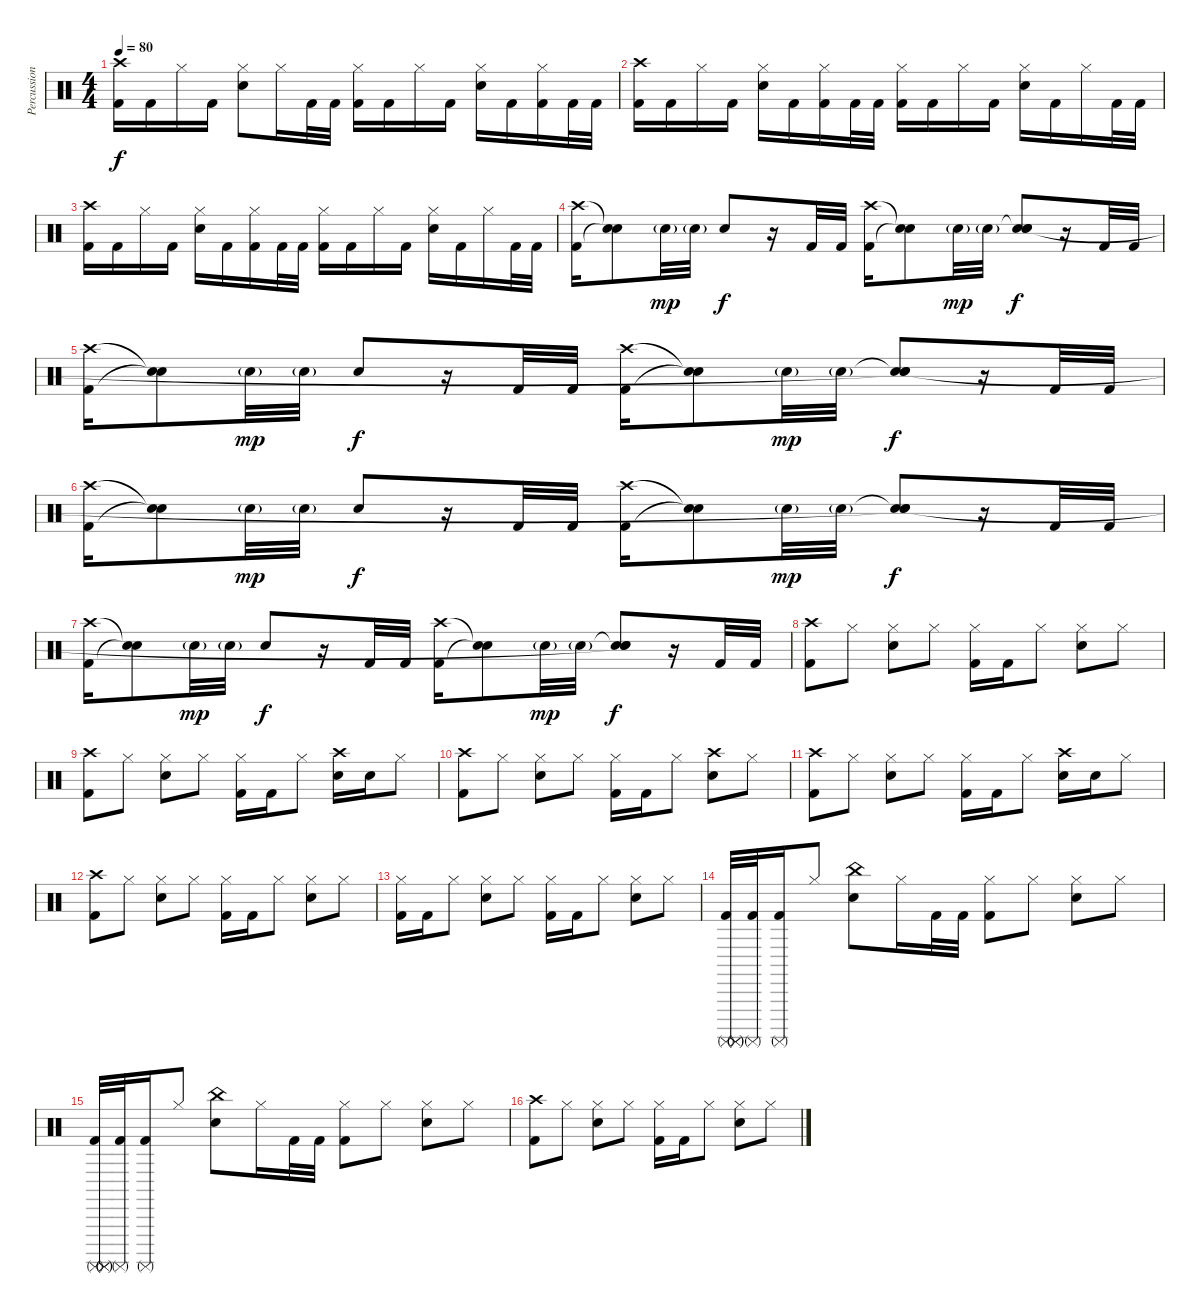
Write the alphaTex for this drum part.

\track ("Percussions" "Percussion") {instrument percussion}
\staff {score}
\articulation defaults
\ts (4 4)
\tempo 80
\clef neutral
\ks c
("Crash high (hit)" "Kick (hit) 2").16{dy f} "Kick (hit) 2".16 "Hi-Hat (closed)".16 "Kick (hit) 2".16 ("Hi-Hat (closed)" "Electric Snare (hit)").8 "Hi-Hat (closed)".16 "Kick (hit) 2".32 "Kick (hit) 2".32 ("Hi-Hat (closed)" "Kick (hit) 2").16 "Kick (hit) 2".16 "Hi-Hat (closed)".16 "Kick (hit) 2".16 ("Hi-Hat (closed)" "Electric Snare (hit)").16 "Kick (hit) 2".16 ("Hi-Hat (closed)" "Kick (hit) 2").16 "Kick (hit) 2".32 "Kick (hit) 2".32 |
("Crash high (hit)" "Kick (hit) 2").16 "Kick (hit) 2".16 "Hi-Hat (closed)".16 "Kick (hit) 2".16 ("Hi-Hat (closed)" "Electric Snare (hit)").16 "Kick (hit) 2".16 ("Hi-Hat (closed)" "Kick (hit) 2").16 "Kick (hit) 2".32 "Kick (hit) 2".32 ("Hi-Hat (closed)" "Kick (hit) 2").16 "Kick (hit) 2".16 "Hi-Hat (closed)".16 "Kick (hit) 2".16 ("Hi-Hat (closed)" "Electric Snare (hit)").16 "Kick (hit) 2".16 "Hi-Hat (closed)".16 "Kick (hit) 2".32 "Kick (hit) 2".32 |
("Crash high (hit)" "Kick (hit) 2").16 "Kick (hit) 2".16 "Hi-Hat (closed)".16 "Kick (hit) 2".16 ("Hi-Hat (closed)" "Electric Snare (hit)").16 "Kick (hit) 2".16 ("Hi-Hat (closed)" "Kick (hit) 2").16 "Kick (hit) 2".32 "Kick (hit) 2".32 ("Hi-Hat (closed)" "Kick (hit) 2").16 "Kick (hit) 2".16 "Hi-Hat (closed)".16 "Kick (hit) 2".16 ("Hi-Hat (closed)" "Electric Snare (hit)").16 "Kick (hit) 2".16 "Hi-Hat (closed)".16 "Kick (hit) 2".32 "Kick (hit) 2".32 |
("Crash high (hit)" "Kick (hit) 2").16 ("Snare (hit)"{t} "Snare (hit)"{t}).8 "Electric Snare (hit)"{g}.32{dy mp} "Electric Snare (hit)"{g}.32 "Electric Snare (hit)".8{dy f} r.16 "Kick (hit) 2".32 "Kick (hit) 2".32 ("Crash high (hit)" "Kick (hit) 2").16 ("Snare (hit)"{t} "Snare (hit)"{t}).8 "Electric Snare (hit)"{g}.32{dy mp} "Electric Snare (hit)"{g}.32 ("Snare (hit)"{t} "Electric Snare (hit)" "Snare (hit)").8{dy f} r.16 "Kick (hit) 2".32 "Kick (hit) 2".32 |
("Crash high (hit)" "Kick (hit) 2").16 ("Snare (hit)"{t} "Snare (hit)"{t}).8 "Electric Snare (hit)"{g}.32{dy mp} "Electric Snare (hit)"{g}.32 "Electric Snare (hit)".8{dy f} r.16 "Kick (hit) 2".32 "Kick (hit) 2".32 ("Crash high (hit)" "Kick (hit) 2").16 ("Snare (hit)"{t} "Snare (hit)"{t}).8 "Electric Snare (hit)"{g}.32{dy mp} "Electric Snare (hit)"{g}.32 ("Snare (hit)"{t} "Electric Snare (hit)" "Snare (hit)"{t}).8{dy f} r.16 "Kick (hit) 2".32 "Kick (hit) 2".32 |
("Crash high (hit)" "Kick (hit) 2").16 ("Snare (hit)"{t} "Snare (hit)"{t}).8 "Electric Snare (hit)"{g}.32{dy mp} "Electric Snare (hit)"{g}.32 "Electric Snare (hit)".8{dy f} r.16 "Kick (hit) 2".32 "Kick (hit) 2".32 ("Crash high (hit)" "Kick (hit) 2").16 ("Snare (hit)"{t} "Snare (hit)"{t}).8 "Electric Snare (hit)"{g}.32{dy mp} "Electric Snare (hit)"{g}.32 ("Snare (hit)"{t} "Electric Snare (hit)" "Snare (hit)"{t}).8{dy f} r.16 "Kick (hit) 2".32 "Kick (hit) 2".32 |
("Crash high (hit)" "Kick (hit) 2").16 ("Snare (hit)"{t} "Snare (hit)"{t}).8 "Electric Snare (hit)"{g}.32{dy mp} "Electric Snare (hit)"{g}.32 "Electric Snare (hit)".8{dy f} r.16 "Kick (hit) 2".32 "Kick (hit) 2".32 ("Crash high (hit)" "Kick (hit) 2").16 ("Snare (hit)"{t} "Snare (hit)"{t}).8 "Electric Snare (hit)"{g}.32{dy mp} "Electric Snare (hit)"{g}.32 ("Snare (hit)"{t} "Electric Snare (hit)" "Snare (hit)"{t}).8{dy f} r.16 "Kick (hit) 2".32 "Kick (hit) 2".32 |
("Crash high (hit)" "Kick (hit) 2").8 "Hi-Hat (closed)".8 ("Hi-Hat (closed)" "Electric Snare (hit)").8 "Hi-Hat (closed)".8 ("Hi-Hat (closed)" "Kick (hit) 2").16 "Kick (hit) 2".16 "Hi-Hat (closed)".8 ("Hi-Hat (closed)" "Electric Snare (hit)").8 "Hi-Hat (closed)".8 |
("Crash high (hit)" "Kick (hit) 2").8 "Hi-Hat (closed)".8 ("Hi-Hat (closed)" "Electric Snare (hit)").8 "Hi-Hat (closed)".8 ("Hi-Hat (closed)" "Kick (hit) 2").16 "Kick (hit) 2".16 "Hi-Hat (closed)".8 ("Crash high (hit)" "Electric Snare (hit)").16 "Electric Snare (hit)".16 "Hi-Hat (closed)".8 |
("Crash high (hit)" "Kick (hit) 2").8 "Hi-Hat (closed)".8 ("Hi-Hat (closed)" "Electric Snare (hit)").8 "Hi-Hat (closed)".8 ("Hi-Hat (closed)" "Kick (hit) 2").16 "Kick (hit) 2".16 "Hi-Hat (closed)".8 ("Crash high (hit)" "Electric Snare (hit)").8 "Hi-Hat (closed)".8 |
("Crash high (hit)" "Kick (hit) 2").8 "Hi-Hat (closed)".8 ("Hi-Hat (closed)" "Electric Snare (hit)").8 "Hi-Hat (closed)".8 ("Hi-Hat (closed)" "Kick (hit) 2").16 "Kick (hit) 2".16 "Hi-Hat (closed)".8 ("Crash high (hit)" "Electric Snare (hit)").16 "Electric Snare (hit)".16 "Hi-Hat (closed)".8 |
("Crash high (hit)" "Kick (hit) 2").8 "Hi-Hat (closed)".8 ("Hi-Hat (closed)" "Electric Snare (hit)").8 "Hi-Hat (closed)".8 ("Hi-Hat (closed)" "Kick (hit) 2").16 "Kick (hit) 2".16 "Hi-Hat (closed)".8 ("Hi-Hat (closed)" "Electric Snare (hit)").8 "Hi-Hat (closed)".8 |
("Hi-Hat (closed)" "Kick (hit) 2").16 "Kick (hit) 2".16 "Hi-Hat (closed)".8 ("Hi-Hat (closed)" "Electric Snare (hit)").8 "Hi-Hat (closed)".8 ("Hi-Hat (closed)" "Kick (hit) 2").16 "Kick (hit) 2".16 "Hi-Hat (closed)".8 ("Hi-Hat (closed)" "Electric Snare (hit)").8 "Hi-Hat (closed)".8 |
("Surdo (mute)" "Surdo (mute)" "Kick (hit) 2" "Surdo (mute)").32 ("Kick (hit) 2" "Surdo (mute)").32 ("Kick (hit) 2" "Surdo (mute)").16 "Hi-Hat (closed)".8 ("China (hit)" "Electric Snare (hit)").8 "Hi-Hat (closed)".16 "Kick (hit) 2".32 "Kick (hit) 2".32 ("Hi-Hat (closed)" "Kick (hit) 2").8 "Hi-Hat (closed)".8 ("Hi-Hat (closed)" "Electric Snare (hit)").8 "Hi-Hat (closed)".8 |
("Surdo (mute)" "Surdo (mute)" "Kick (hit) 2" "Surdo (mute)").32 ("Kick (hit) 2" "Surdo (mute)").32 ("Kick (hit) 2" "Surdo (mute)").16 "Hi-Hat (closed)".8 ("China (hit)" "Electric Snare (hit)").8 "Hi-Hat (closed)".16 "Kick (hit) 2".32 "Kick (hit) 2".32 ("Hi-Hat (closed)" "Kick (hit) 2").8 "Hi-Hat (closed)".8 ("Hi-Hat (closed)" "Electric Snare (hit)").8 "Hi-Hat (closed)".8 |
("Crash high (hit)" "Kick (hit) 2").8 "Hi-Hat (closed)".8 ("Hi-Hat (closed)" "Electric Snare (hit)").8 "Hi-Hat (closed)".8 ("Hi-Hat (closed)" "Kick (hit) 2").16 "Kick (hit) 2".16 "Hi-Hat (closed)".8 ("Hi-Hat (closed)" "Electric Snare (hit)").8 "Hi-Hat (closed)".8
